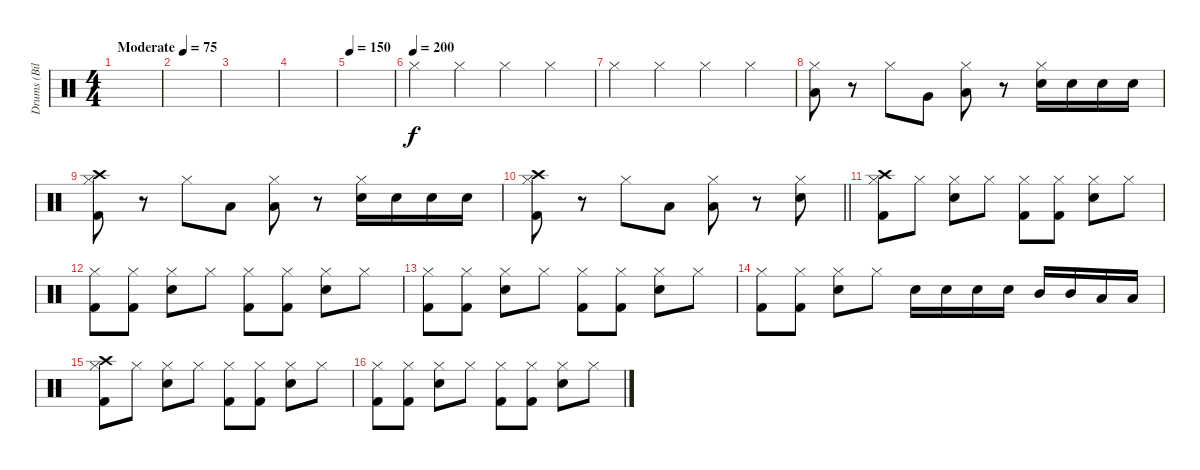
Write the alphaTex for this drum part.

\track ("Drums (Bill Stevenson)" "Drums (Bil") {instrument percussion}
\staff {score}
\articulation defaults
\ts (4 4)
\tempo (75 "Moderate")
\clef neutral
\ks c
|
|
|
|
\tempo 150
|
\tempo (200)
"Hi-Hat (closed)".4 "Hi-Hat (closed)".4 "Hi-Hat (closed)".4 "Hi-Hat (closed)".4 |
"Hi-Hat (closed)".4 "Hi-Hat (closed)".4 "Hi-Hat (closed)".4 "Hi-Hat (closed)".4 |
("Hi-Hat (closed)" "Low Tom (hit)").8 r.8 "Hi-Hat (closed)".8 "Very Low Tom (hit)".8 ("Hi-Hat (closed)" "Low Tom (hit)").8 r.8 ("Hi-Hat (closed)" "Electric Snare (hit)").16 "Electric Snare (hit)".16 "Electric Snare (hit)".16 "Electric Snare (hit)".16 |
("Hi-Hat (closed)" "Crash high (hit)" "Kick (hit) 2").8 r.8 "Hi-Hat (closed)".8 "Low Tom (hit)".8 ("Hi-Hat (closed)" "Low Tom (hit)").8 r.8 ("Hi-Hat (closed)" "Electric Snare (hit)").16 "Electric Snare (hit)".16 "Electric Snare (hit)".16 "Electric Snare (hit)".16 |
\barLineRight lightlight
("Hi-Hat (closed)" "Crash high (hit)" "Kick (hit) 2").8 r.8 "Hi-Hat (closed)".8 "Low Tom (hit)".8 ("Hi-Hat (closed)" "Low Tom (hit)").8 r.8 ("Hi-Hat (closed)" "Electric Snare (hit)").8 |
("Hi-Hat (closed)" "Crash high (hit)" "Kick (hit) 2").8 "Hi-Hat (closed)".8 ("Hi-Hat (closed)" "Electric Snare (hit)").8 "Hi-Hat (closed)".8 ("Hi-Hat (closed)" "Kick (hit) 2").8 ("Hi-Hat (closed)" "Kick (hit) 2").8 ("Hi-Hat (closed)" "Electric Snare (hit)").8 "Hi-Hat (closed)".8 |
("Hi-Hat (closed)" "Kick (hit) 2").8 ("Hi-Hat (closed)" "Kick (hit) 2").8 ("Hi-Hat (closed)" "Electric Snare (hit)").8 "Hi-Hat (closed)".8 ("Hi-Hat (closed)" "Kick (hit) 2").8 ("Hi-Hat (closed)" "Kick (hit) 2").8 ("Hi-Hat (closed)" "Electric Snare (hit)").8 "Hi-Hat (closed)".8 |
("Hi-Hat (closed)" "Kick (hit) 2").8 ("Hi-Hat (closed)" "Kick (hit) 2").8 ("Hi-Hat (closed)" "Electric Snare (hit)").8 "Hi-Hat (closed)".8 ("Hi-Hat (closed)" "Kick (hit) 2").8 ("Hi-Hat (closed)" "Kick (hit) 2").8 ("Hi-Hat (closed)" "Electric Snare (hit)").8 "Hi-Hat (closed)".8 |
("Hi-Hat (closed)" "Kick (hit) 2").8 ("Hi-Hat (closed)" "Kick (hit) 2").8 ("Hi-Hat (closed)" "Electric Snare (hit)").8 "Hi-Hat (closed)".8 "Electric Snare (hit)".16 "Electric Snare (hit)".16 "Electric Snare (hit)".16 "Electric Snare (hit)".16 "Mid Tom (hit)".16 "Mid Tom (hit)".16 "Low Tom (hit)".16 "Low Tom (hit)".16 |
("Hi-Hat (closed)" "Crash high (hit)" "Kick (hit) 2").8 "Hi-Hat (closed)".8 ("Hi-Hat (closed)" "Electric Snare (hit)").8 "Hi-Hat (closed)".8 ("Hi-Hat (closed)" "Kick (hit) 2").8 ("Hi-Hat (closed)" "Kick (hit) 2").8 ("Hi-Hat (closed)" "Electric Snare (hit)").8 "Hi-Hat (closed)".8 |
("Hi-Hat (closed)" "Kick (hit) 2").8 ("Hi-Hat (closed)" "Kick (hit) 2").8 ("Hi-Hat (closed)" "Electric Snare (hit)").8 "Hi-Hat (closed)".8 ("Hi-Hat (closed)" "Kick (hit) 2").8 ("Hi-Hat (closed)" "Kick (hit) 2").8 ("Hi-Hat (closed)" "Electric Snare (hit)").8 "Hi-Hat (closed)".8
